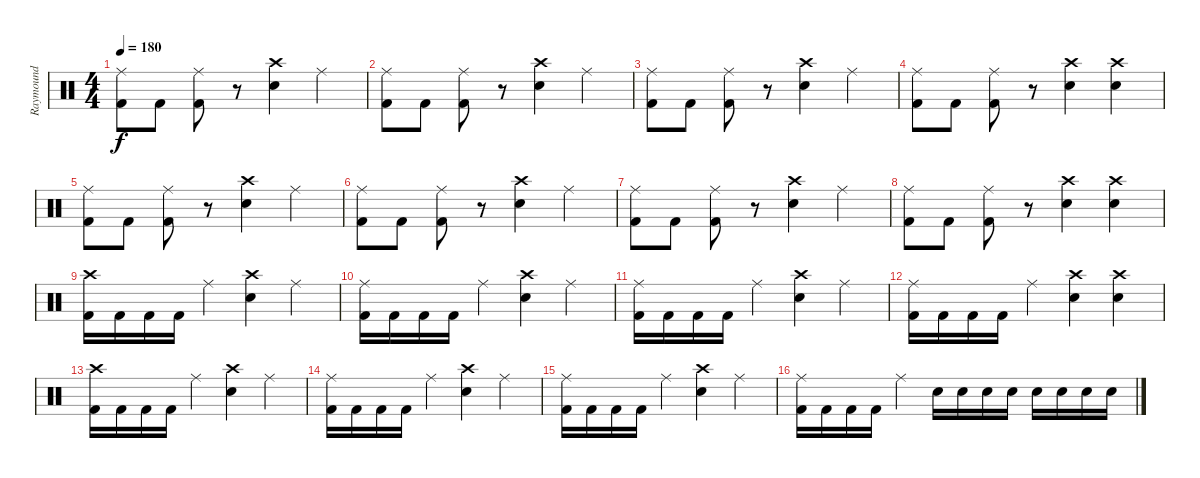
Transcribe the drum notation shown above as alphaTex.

\track ("Raymound " "Raymound ") {instrument percussion}
\staff {score}
\articulation defaults
\ts (4 4)
\tempo 180
\clef neutral
\ks c
("Ride (middle)" "Kick (hit) 2").8{dy f} "Kick (hit) 2".8 ("Ride (middle)" "Kick (hit) 2").8 r.8 ("Crash high (hit)" "Electric Snare (hit)").4 "Ride (middle)".4 |
("Ride (middle)" "Kick (hit) 2").8 "Kick (hit) 2".8 ("Ride (middle)" "Kick (hit) 2").8 r.8 ("Crash high (hit)" "Electric Snare (hit)").4 "Ride (middle)".4 |
("Ride (middle)" "Kick (hit) 2").8 "Kick (hit) 2".8 ("Ride (middle)" "Kick (hit) 2").8 r.8 ("Crash high (hit)" "Electric Snare (hit)").4 "Ride (middle)".4 |
("Ride (middle)" "Kick (hit) 2").8 "Kick (hit) 2".8 ("Ride (middle)" "Kick (hit) 2").8 r.8 ("Crash high (hit)" "Electric Snare (hit)").4 ("Crash high (hit)" "Electric Snare (hit)").4 |
("Ride (middle)" "Kick (hit) 2").8 "Kick (hit) 2".8 ("Ride (middle)" "Kick (hit) 2").8 r.8 ("Crash high (hit)" "Electric Snare (hit)").4 "Ride (middle)".4 |
("Ride (middle)" "Kick (hit) 2").8 "Kick (hit) 2".8 ("Ride (middle)" "Kick (hit) 2").8 r.8 ("Crash high (hit)" "Electric Snare (hit)").4 "Ride (middle)".4 |
("Ride (middle)" "Kick (hit) 2").8 "Kick (hit) 2".8 ("Ride (middle)" "Kick (hit) 2").8 r.8 ("Crash high (hit)" "Electric Snare (hit)").4 "Ride (middle)".4 |
("Ride (middle)" "Kick (hit) 2").8 "Kick (hit) 2".8 ("Ride (middle)" "Kick (hit) 2").8 r.8 ("Crash high (hit)" "Electric Snare (hit)").4 ("Crash high (hit)" "Electric Snare (hit)").4 |
("Crash high (hit)" "Kick (hit) 2").16 "Kick (hit) 2".16 "Kick (hit) 2".16 "Kick (hit) 2".16 "Ride (middle)".4 ("Crash high (hit)" "Electric Snare (hit)").4 "Ride (middle)".4 |
("Ride (middle)" "Kick (hit) 2").16 "Kick (hit) 2".16 "Kick (hit) 2".16 "Kick (hit) 2".16 "Ride (middle)".4 ("Crash high (hit)" "Electric Snare (hit)").4 "Ride (middle)".4 |
("Ride (middle)" "Kick (hit) 2").16 "Kick (hit) 2".16 "Kick (hit) 2".16 "Kick (hit) 2".16 "Ride (middle)".4 ("Crash high (hit)" "Electric Snare (hit)").4 "Ride (middle)".4 |
("Ride (middle)" "Kick (hit) 2").16 "Kick (hit) 2".16 "Kick (hit) 2".16 "Kick (hit) 2".16 "Ride (middle)".4 ("Crash high (hit)" "Electric Snare (hit)").4 ("Crash high (hit)" "Electric Snare (hit)").4 |
("Crash high (hit)" "Kick (hit) 2").16 "Kick (hit) 2".16 "Kick (hit) 2".16 "Kick (hit) 2".16 "Ride (middle)".4 ("Crash high (hit)" "Electric Snare (hit)").4 "Ride (middle)".4 |
("Ride (middle)" "Kick (hit) 2").16 "Kick (hit) 2".16 "Kick (hit) 2".16 "Kick (hit) 2".16 "Ride (middle)".4 ("Crash high (hit)" "Electric Snare (hit)").4 "Ride (middle)".4 |
("Ride (middle)" "Kick (hit) 2").16 "Kick (hit) 2".16 "Kick (hit) 2".16 "Kick (hit) 2".16 "Ride (middle)".4 ("Crash high (hit)" "Electric Snare (hit)").4 "Ride (middle)".4 |
("Ride (middle)" "Kick (hit) 2").16 "Kick (hit) 2".16 "Kick (hit) 2".16 "Kick (hit) 2".16 "Ride (middle)".4 "Electric Snare (hit)".16 "Electric Snare (hit)".16 "Electric Snare (hit)".16 "Electric Snare (hit)".16 "Electric Snare (hit)".16 "Electric Snare (hit)".16 "Electric Snare (hit)".16 "Electric Snare (hit)".16
